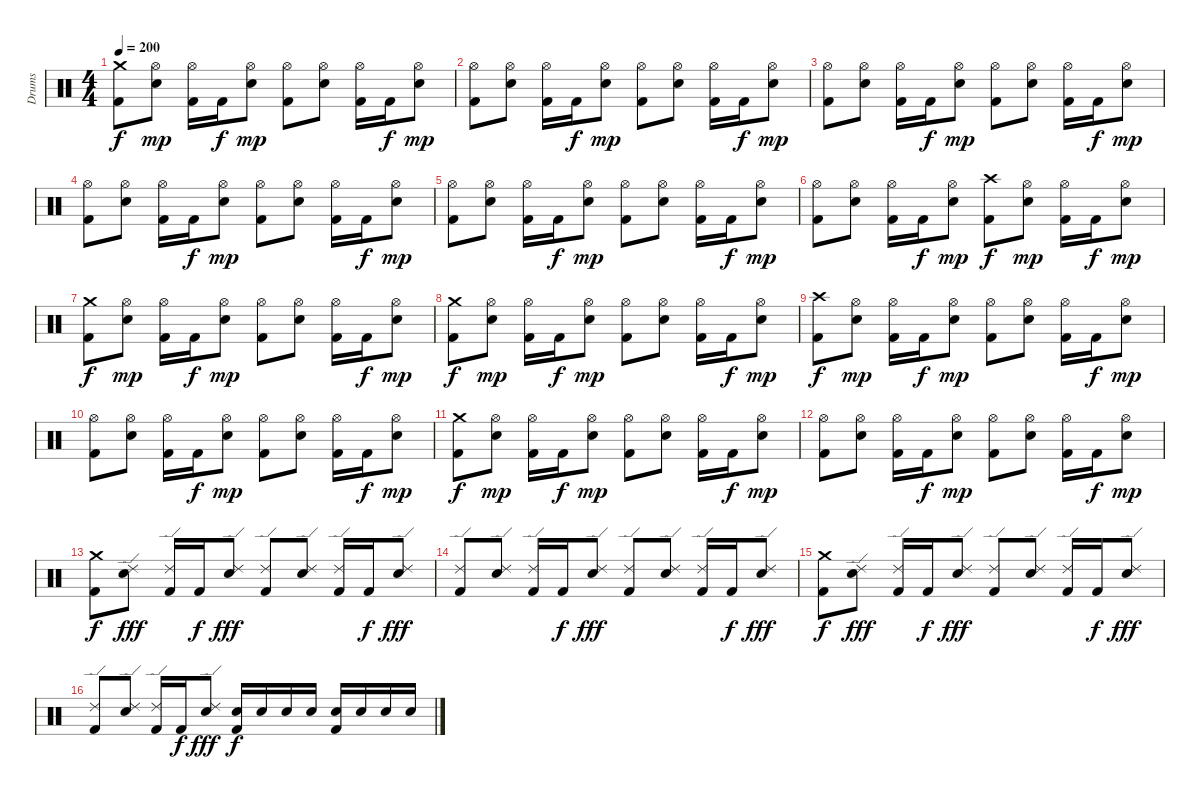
\track ("Drums" "Drums") {instrument percussion}
\staff {score}
\articulation defaults
\ts (4 4)
\tempo 200
\clef neutral
\ks c
("Crash medium (hit)" "Kick (hit) 2").8{dy f} ("Hi-Hat (open)" "Snare (hit) 2").8{dy mp} ("Hi-Hat (open)" "Kick (hit) 2").16 "Kick (hit) 2".16{dy f} ("Hi-Hat (open)" "Snare (hit) 2").8{dy mp} ("Hi-Hat (open)" "Kick (hit) 2").8 ("Hi-Hat (open)" "Snare (hit) 2").8 ("Hi-Hat (open)" "Kick (hit) 2").16 "Kick (hit) 2".16{dy f} ("Hi-Hat (open)" "Snare (hit) 2").8{dy mp} |
("Hi-Hat (open)" "Kick (hit) 2").8 ("Hi-Hat (open)" "Snare (hit) 2").8 ("Hi-Hat (open)" "Kick (hit) 2").16 "Kick (hit) 2".16{dy f} ("Hi-Hat (open)" "Snare (hit) 2").8{dy mp} ("Hi-Hat (open)" "Kick (hit) 2").8 ("Hi-Hat (open)" "Snare (hit) 2").8 ("Hi-Hat (open)" "Kick (hit) 2").16 "Kick (hit) 2".16{dy f} ("Hi-Hat (open)" "Snare (hit) 2").8{dy mp} |
("Hi-Hat (open)" "Kick (hit) 2").8 ("Hi-Hat (open)" "Snare (hit) 2").8 ("Hi-Hat (open)" "Kick (hit) 2").16 "Kick (hit) 2".16{dy f} ("Hi-Hat (open)" "Snare (hit) 2").8{dy mp} ("Hi-Hat (open)" "Kick (hit) 2").8 ("Hi-Hat (open)" "Snare (hit) 2").8 ("Hi-Hat (open)" "Kick (hit) 2").16 "Kick (hit) 2".16{dy f} ("Hi-Hat (open)" "Snare (hit) 2").8{dy mp} |
("Hi-Hat (open)" "Kick (hit) 2").8 ("Hi-Hat (open)" "Snare (hit) 2").8 ("Hi-Hat (open)" "Kick (hit) 2").16 "Kick (hit) 2".16{dy f} ("Hi-Hat (open)" "Snare (hit) 2").8{dy mp} ("Hi-Hat (open)" "Kick (hit) 2").8 ("Hi-Hat (open)" "Snare (hit) 2").8 ("Hi-Hat (open)" "Kick (hit) 2").16 "Kick (hit) 2".16{dy f} ("Hi-Hat (open)" "Snare (hit) 2").8{dy mp} |
("Hi-Hat (open)" "Kick (hit) 2").8 ("Hi-Hat (open)" "Snare (hit) 2").8 ("Hi-Hat (open)" "Kick (hit) 2").16 "Kick (hit) 2".16{dy f} ("Hi-Hat (open)" "Snare (hit) 2").8{dy mp} ("Hi-Hat (open)" "Kick (hit) 2").8 ("Hi-Hat (open)" "Snare (hit) 2").8 ("Hi-Hat (open)" "Kick (hit) 2").16 "Kick (hit) 2".16{dy f} ("Hi-Hat (open)" "Snare (hit) 2").8{dy mp} |
("Hi-Hat (open)" "Kick (hit) 2").8 ("Hi-Hat (open)" "Snare (hit) 2").8 ("Hi-Hat (open)" "Kick (hit) 2").16 "Kick (hit) 2".16{dy f} ("Hi-Hat (open)" "Snare (hit) 2").8{dy mp} ("Crash high (hit)" "Kick (hit) 2").8{dy f} ("Hi-Hat (open)" "Snare (hit) 2").8{dy mp} ("Hi-Hat (open)" "Kick (hit) 2").16 "Kick (hit) 2".16{dy f} ("Hi-Hat (open)" "Snare (hit) 2").8{dy mp} |
("Crash medium (hit)" "Kick (hit) 2").8{dy f} ("Hi-Hat (open)" "Snare (hit) 2").8{dy mp} ("Hi-Hat (open)" "Kick (hit) 2").16 "Kick (hit) 2".16{dy f} ("Hi-Hat (open)" "Snare (hit) 2").8{dy mp} ("Hi-Hat (open)" "Kick (hit) 2").8 ("Hi-Hat (open)" "Snare (hit) 2").8 ("Hi-Hat (open)" "Kick (hit) 2").16 "Kick (hit) 2".16{dy f} ("Hi-Hat (open)" "Snare (hit) 2").8{dy mp} |
("Crash medium (hit)" "Kick (hit) 2").8{dy f} ("Hi-Hat (open)" "Snare (hit) 2").8{dy mp} ("Hi-Hat (open)" "Kick (hit) 2").16 "Kick (hit) 2".16{dy f} ("Hi-Hat (open)" "Snare (hit) 2").8{dy mp} ("Hi-Hat (open)" "Kick (hit) 2").8 ("Hi-Hat (open)" "Snare (hit) 2").8 ("Hi-Hat (open)" "Kick (hit) 2").16 "Kick (hit) 2".16{dy f} ("Hi-Hat (open)" "Snare (hit) 2").8{dy mp} |
("Crash high (hit)" "Kick (hit) 2").8{dy f} ("Hi-Hat (open)" "Snare (hit) 2").8{dy mp} ("Hi-Hat (open)" "Kick (hit) 2").16 "Kick (hit) 2".16{dy f} ("Hi-Hat (open)" "Snare (hit) 2").8{dy mp} ("Hi-Hat (open)" "Kick (hit) 2").8 ("Hi-Hat (open)" "Snare (hit) 2").8 ("Hi-Hat (open)" "Kick (hit) 2").16 "Kick (hit) 2".16{dy f} ("Hi-Hat (open)" "Snare (hit) 2").8{dy mp} |
("Hi-Hat (open)" "Kick (hit) 2").8 ("Hi-Hat (open)" "Snare (hit) 2").8 ("Hi-Hat (open)" "Kick (hit) 2").16 "Kick (hit) 2".16{dy f} ("Hi-Hat (open)" "Snare (hit) 2").8{dy mp} ("Hi-Hat (open)" "Kick (hit) 2").8 ("Hi-Hat (open)" "Snare (hit) 2").8 ("Hi-Hat (open)" "Kick (hit) 2").16 "Kick (hit) 2".16{dy f} ("Hi-Hat (open)" "Snare (hit) 2").8{dy mp} |
("Crash medium (hit)" "Kick (hit) 2").8{dy f} ("Hi-Hat (open)" "Snare (hit) 2").8{dy mp} ("Hi-Hat (open)" "Kick (hit) 2").16 "Kick (hit) 2".16{dy f} ("Hi-Hat (open)" "Snare (hit) 2").8{dy mp} ("Hi-Hat (open)" "Kick (hit) 2").8 ("Hi-Hat (open)" "Snare (hit) 2").8 ("Hi-Hat (open)" "Kick (hit) 2").16 "Kick (hit) 2".16{dy f} ("Hi-Hat (open)" "Snare (hit) 2").8{dy mp} |
("Hi-Hat (open)" "Kick (hit) 2").8 ("Hi-Hat (open)" "Snare (hit) 2").8 ("Hi-Hat (open)" "Kick (hit) 2").16 "Kick (hit) 2".16{dy f} ("Hi-Hat (open)" "Snare (hit) 2").8{dy mp} ("Hi-Hat (open)" "Kick (hit) 2").8 ("Hi-Hat (open)" "Snare (hit) 2").8 ("Hi-Hat (open)" "Kick (hit) 2").16 "Kick (hit) 2".16{dy f} ("Hi-Hat (open)" "Snare (hit) 2").8{dy mp} |
("Crash medium (hit)" "Kick (hit) 2").8{dy f} ("Ride (edge) 2" "Snare (hit) 2").8{dy fff} ("Ride (edge) 2" "Kick (hit) 2").16 "Kick (hit) 2".16{dy f} ("Ride (edge) 2" "Snare (hit) 2").8{dy fff} ("Ride (edge) 2" "Kick (hit) 2").8 ("Ride (edge) 2" "Snare (hit) 2").8 ("Ride (edge) 2" "Kick (hit) 2").16 "Kick (hit) 2".16{dy f} ("Ride (edge) 2" "Snare (hit) 2").8{dy fff} |
("Ride (edge) 2" "Kick (hit) 2").8 ("Ride (edge) 2" "Snare (hit) 2").8 ("Ride (edge) 2" "Kick (hit) 2").16 "Kick (hit) 2".16{dy f} ("Ride (edge) 2" "Snare (hit) 2").8{dy fff} ("Ride (edge) 2" "Kick (hit) 2").8 ("Ride (edge) 2" "Snare (hit) 2").8 ("Ride (edge) 2" "Kick (hit) 2").16 "Kick (hit) 2".16{dy f} ("Ride (edge) 2" "Snare (hit) 2").8{dy fff} |
("Crash medium (hit)" "Kick (hit) 2").8{dy f} ("Ride (edge) 2" "Snare (hit) 2").8{dy fff} ("Ride (edge) 2" "Kick (hit) 2").16 "Kick (hit) 2".16{dy f} ("Ride (edge) 2" "Snare (hit) 2").8{dy fff} ("Ride (edge) 2" "Kick (hit) 2").8 ("Ride (edge) 2" "Snare (hit) 2").8 ("Ride (edge) 2" "Kick (hit) 2").16 "Kick (hit) 2".16{dy f} ("Ride (edge) 2" "Snare (hit) 2").8{dy fff} |
("Ride (edge) 2" "Kick (hit) 2").8 ("Ride (edge) 2" "Snare (hit) 2").8 ("Ride (edge) 2" "Kick (hit) 2").16 "Kick (hit) 2".16{dy f} ("Ride (edge) 2" "Snare (hit) 2").8{dy fff} ("Snare (hit) 2" "Kick (hit) 2").16{dy f} "Snare (hit) 2".16 "Snare (hit) 2".16 "Snare (hit) 2".16 ("Snare (hit) 2" "Kick (hit) 2").16 "Snare (hit) 2".16 "Snare (hit) 2".16 "Snare (hit) 2".16
